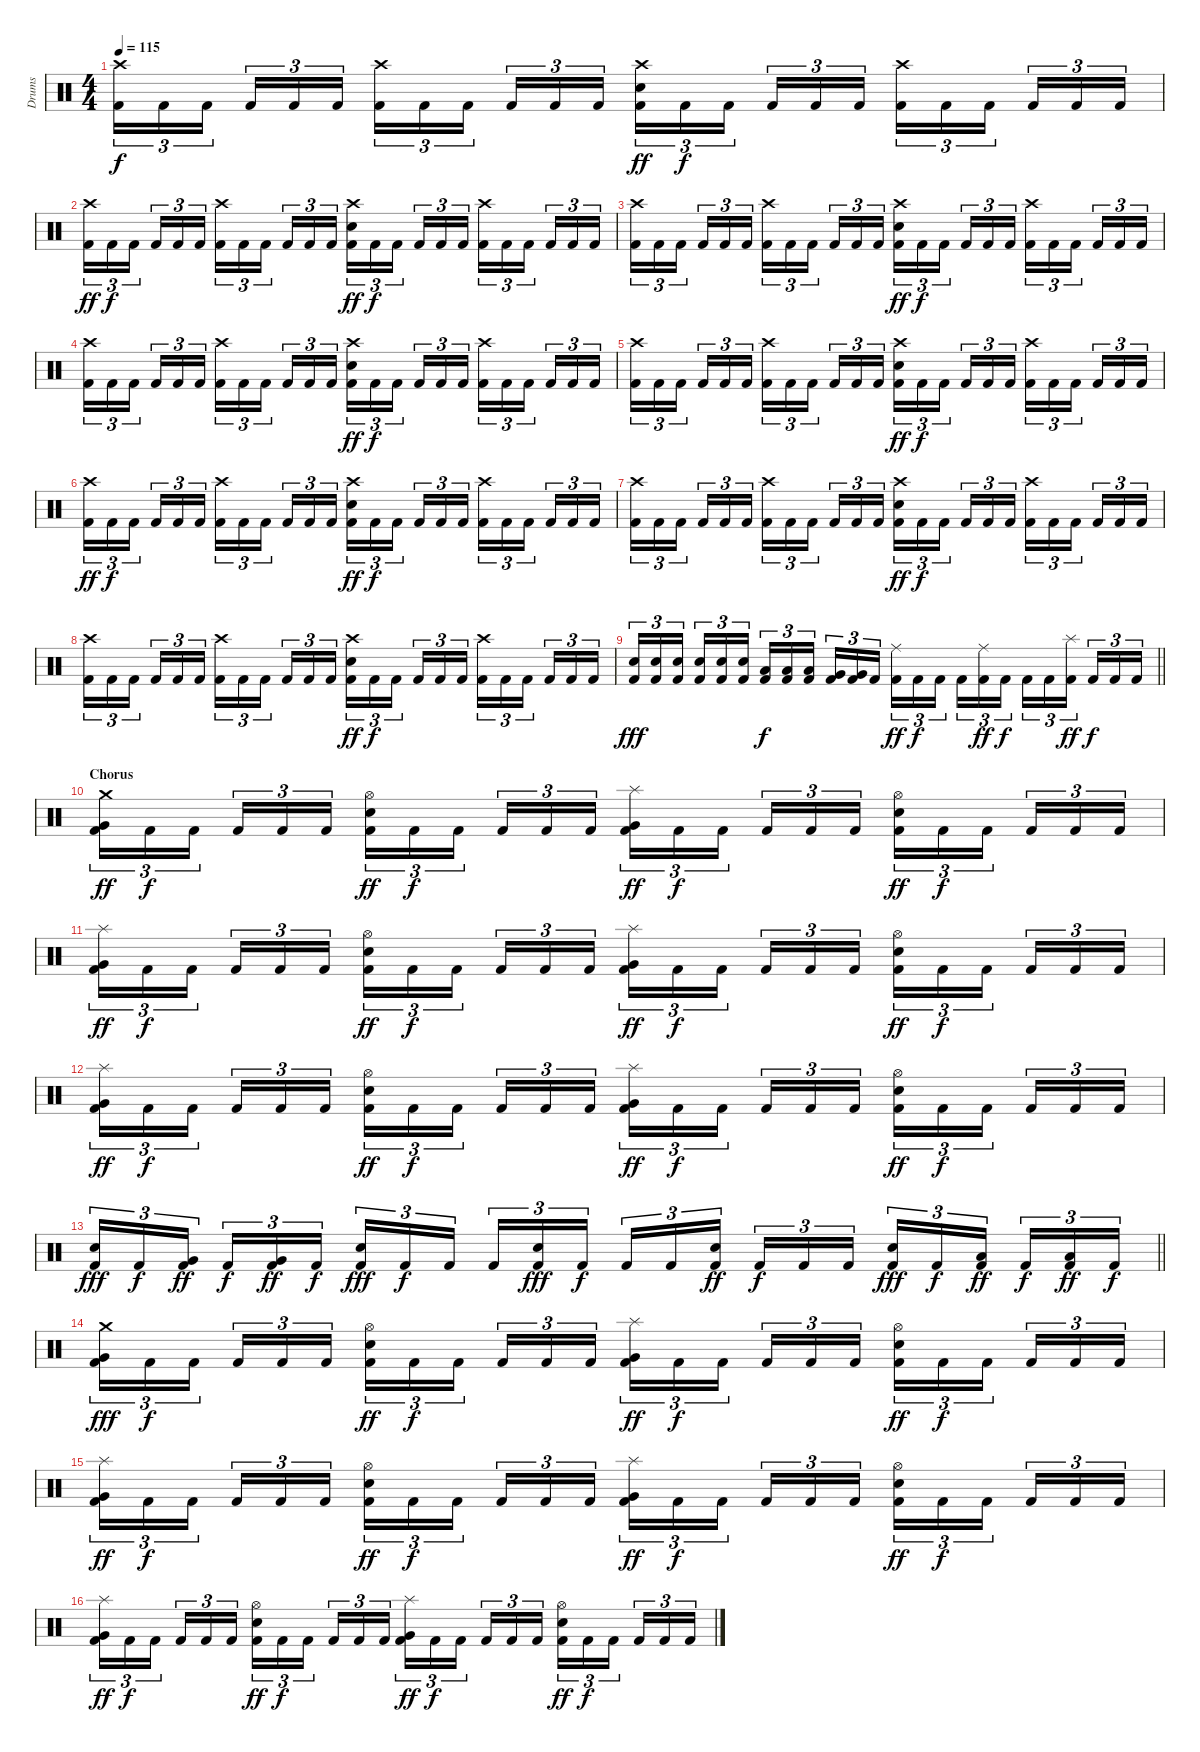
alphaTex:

\track ("Drums" "Drums") {instrument percussion}
\staff {score}
\articulation defaults
\ts (4 4)
\tempo 115
\clef neutral
\ks c
("Crash high (hit)" "Kick (hit) 2").16{tu (3 2) dy f} "Kick (hit) 2".16{tu (3 2)} "Kick (hit) 2".16{tu (3 2) beam splitsecondary} "Kick (hit) 2".16{tu (3 2)} "Kick (hit) 2".16{tu (3 2)} "Kick (hit) 2".16{tu (3 2)} ("Crash high (hit)" "Kick (hit) 2").16{tu (3 2)} "Kick (hit) 2".16{tu (3 2)} "Kick (hit) 2".16{tu (3 2) beam splitsecondary} "Kick (hit) 2".16{tu (3 2)} "Kick (hit) 2".16{tu (3 2)} "Kick (hit) 2".16{tu (3 2)} ("Crash high (hit)" "Snare (hit) 2" "Kick (hit) 2").16{tu (3 2) dy ff} "Kick (hit) 2".16{tu (3 2) dy f} "Kick (hit) 2".16{tu (3 2) beam splitsecondary} "Kick (hit) 2".16{tu (3 2)} "Kick (hit) 2".16{tu (3 2)} "Kick (hit) 2".16{tu (3 2)} ("Crash high (hit)" "Kick (hit) 2").16{tu (3 2)} "Kick (hit) 2".16{tu (3 2)} "Kick (hit) 2".16{tu (3 2) beam splitsecondary} "Kick (hit) 2".16{tu (3 2)} "Kick (hit) 2".16{tu (3 2)} "Kick (hit) 2".16{tu (3 2)} |
("Crash high (hit)" "Kick (hit) 2").16{tu (3 2) dy ff} "Kick (hit) 2".16{tu (3 2) dy f} "Kick (hit) 2".16{tu (3 2) beam splitsecondary} "Kick (hit) 2".16{tu (3 2)} "Kick (hit) 2".16{tu (3 2)} "Kick (hit) 2".16{tu (3 2)} ("Crash high (hit)" "Kick (hit) 2").16{tu (3 2)} "Kick (hit) 2".16{tu (3 2)} "Kick (hit) 2".16{tu (3 2) beam splitsecondary} "Kick (hit) 2".16{tu (3 2)} "Kick (hit) 2".16{tu (3 2)} "Kick (hit) 2".16{tu (3 2)} ("Crash high (hit)" "Snare (hit) 2" "Kick (hit) 2").16{tu (3 2) dy ff} "Kick (hit) 2".16{tu (3 2) dy f} "Kick (hit) 2".16{tu (3 2) beam splitsecondary} "Kick (hit) 2".16{tu (3 2)} "Kick (hit) 2".16{tu (3 2)} "Kick (hit) 2".16{tu (3 2)} ("Crash high (hit)" "Kick (hit) 2").16{tu (3 2)} "Kick (hit) 2".16{tu (3 2)} "Kick (hit) 2".16{tu (3 2) beam splitsecondary} "Kick (hit) 2".16{tu (3 2)} "Kick (hit) 2".16{tu (3 2)} "Kick (hit) 2".16{tu (3 2)} |
("Crash high (hit)" "Kick (hit) 2").16{tu (3 2)} "Kick (hit) 2".16{tu (3 2)} "Kick (hit) 2".16{tu (3 2) beam splitsecondary} "Kick (hit) 2".16{tu (3 2)} "Kick (hit) 2".16{tu (3 2)} "Kick (hit) 2".16{tu (3 2)} ("Crash high (hit)" "Kick (hit) 2").16{tu (3 2)} "Kick (hit) 2".16{tu (3 2)} "Kick (hit) 2".16{tu (3 2) beam splitsecondary} "Kick (hit) 2".16{tu (3 2)} "Kick (hit) 2".16{tu (3 2)} "Kick (hit) 2".16{tu (3 2)} ("Crash high (hit)" "Snare (hit) 2" "Kick (hit) 2").16{tu (3 2) dy ff} "Kick (hit) 2".16{tu (3 2) dy f} "Kick (hit) 2".16{tu (3 2) beam splitsecondary} "Kick (hit) 2".16{tu (3 2)} "Kick (hit) 2".16{tu (3 2)} "Kick (hit) 2".16{tu (3 2)} ("Crash high (hit)" "Kick (hit) 2").16{tu (3 2)} "Kick (hit) 2".16{tu (3 2)} "Kick (hit) 2".16{tu (3 2) beam splitsecondary} "Kick (hit) 2".16{tu (3 2)} "Kick (hit) 2".16{tu (3 2)} "Kick (hit) 2".16{tu (3 2)} |
("Crash high (hit)" "Kick (hit) 2").16{tu (3 2)} "Kick (hit) 2".16{tu (3 2)} "Kick (hit) 2".16{tu (3 2) beam splitsecondary} "Kick (hit) 2".16{tu (3 2)} "Kick (hit) 2".16{tu (3 2)} "Kick (hit) 2".16{tu (3 2)} ("Crash high (hit)" "Kick (hit) 2").16{tu (3 2)} "Kick (hit) 2".16{tu (3 2)} "Kick (hit) 2".16{tu (3 2) beam splitsecondary} "Kick (hit) 2".16{tu (3 2)} "Kick (hit) 2".16{tu (3 2)} "Kick (hit) 2".16{tu (3 2)} ("Crash high (hit)" "Snare (hit) 2" "Kick (hit) 2").16{tu (3 2) dy ff} "Kick (hit) 2".16{tu (3 2) dy f} "Kick (hit) 2".16{tu (3 2) beam splitsecondary} "Kick (hit) 2".16{tu (3 2)} "Kick (hit) 2".16{tu (3 2)} "Kick (hit) 2".16{tu (3 2)} ("Crash high (hit)" "Kick (hit) 2").16{tu (3 2)} "Kick (hit) 2".16{tu (3 2)} "Kick (hit) 2".16{tu (3 2) beam splitsecondary} "Kick (hit) 2".16{tu (3 2)} "Kick (hit) 2".16{tu (3 2)} "Kick (hit) 2".16{tu (3 2)} |
("Crash high (hit)" "Kick (hit) 2").16{tu (3 2)} "Kick (hit) 2".16{tu (3 2)} "Kick (hit) 2".16{tu (3 2) beam splitsecondary} "Kick (hit) 2".16{tu (3 2)} "Kick (hit) 2".16{tu (3 2)} "Kick (hit) 2".16{tu (3 2)} ("Crash high (hit)" "Kick (hit) 2").16{tu (3 2)} "Kick (hit) 2".16{tu (3 2)} "Kick (hit) 2".16{tu (3 2) beam splitsecondary} "Kick (hit) 2".16{tu (3 2)} "Kick (hit) 2".16{tu (3 2)} "Kick (hit) 2".16{tu (3 2)} ("Crash high (hit)" "Snare (hit) 2" "Kick (hit) 2").16{tu (3 2) dy ff} "Kick (hit) 2".16{tu (3 2) dy f} "Kick (hit) 2".16{tu (3 2) beam splitsecondary} "Kick (hit) 2".16{tu (3 2)} "Kick (hit) 2".16{tu (3 2)} "Kick (hit) 2".16{tu (3 2)} ("Crash high (hit)" "Kick (hit) 2").16{tu (3 2)} "Kick (hit) 2".16{tu (3 2)} "Kick (hit) 2".16{tu (3 2) beam splitsecondary} "Kick (hit) 2".16{tu (3 2)} "Kick (hit) 2".16{tu (3 2)} "Kick (hit) 2".16{tu (3 2)} |
("Crash high (hit)" "Kick (hit) 2").16{tu (3 2) dy ff} "Kick (hit) 2".16{tu (3 2) dy f} "Kick (hit) 2".16{tu (3 2) beam splitsecondary} "Kick (hit) 2".16{tu (3 2)} "Kick (hit) 2".16{tu (3 2)} "Kick (hit) 2".16{tu (3 2)} ("Crash high (hit)" "Kick (hit) 2").16{tu (3 2)} "Kick (hit) 2".16{tu (3 2)} "Kick (hit) 2".16{tu (3 2) beam splitsecondary} "Kick (hit) 2".16{tu (3 2)} "Kick (hit) 2".16{tu (3 2)} "Kick (hit) 2".16{tu (3 2)} ("Crash high (hit)" "Snare (hit) 2" "Kick (hit) 2").16{tu (3 2) dy ff} "Kick (hit) 2".16{tu (3 2) dy f} "Kick (hit) 2".16{tu (3 2) beam splitsecondary} "Kick (hit) 2".16{tu (3 2)} "Kick (hit) 2".16{tu (3 2)} "Kick (hit) 2".16{tu (3 2)} ("Crash high (hit)" "Kick (hit) 2").16{tu (3 2)} "Kick (hit) 2".16{tu (3 2)} "Kick (hit) 2".16{tu (3 2) beam splitsecondary} "Kick (hit) 2".16{tu (3 2)} "Kick (hit) 2".16{tu (3 2)} "Kick (hit) 2".16{tu (3 2)} |
("Crash high (hit)" "Kick (hit) 2").16{tu (3 2)} "Kick (hit) 2".16{tu (3 2)} "Kick (hit) 2".16{tu (3 2) beam splitsecondary} "Kick (hit) 2".16{tu (3 2)} "Kick (hit) 2".16{tu (3 2)} "Kick (hit) 2".16{tu (3 2)} ("Crash high (hit)" "Kick (hit) 2").16{tu (3 2)} "Kick (hit) 2".16{tu (3 2)} "Kick (hit) 2".16{tu (3 2) beam splitsecondary} "Kick (hit) 2".16{tu (3 2)} "Kick (hit) 2".16{tu (3 2)} "Kick (hit) 2".16{tu (3 2)} ("Crash high (hit)" "Snare (hit) 2" "Kick (hit) 2").16{tu (3 2) dy ff} "Kick (hit) 2".16{tu (3 2) dy f} "Kick (hit) 2".16{tu (3 2) beam splitsecondary} "Kick (hit) 2".16{tu (3 2)} "Kick (hit) 2".16{tu (3 2)} "Kick (hit) 2".16{tu (3 2)} ("Crash high (hit)" "Kick (hit) 2").16{tu (3 2)} "Kick (hit) 2".16{tu (3 2)} "Kick (hit) 2".16{tu (3 2) beam splitsecondary} "Kick (hit) 2".16{tu (3 2)} "Kick (hit) 2".16{tu (3 2)} "Kick (hit) 2".16{tu (3 2)} |
("Crash high (hit)" "Kick (hit) 2").16{tu (3 2)} "Kick (hit) 2".16{tu (3 2)} "Kick (hit) 2".16{tu (3 2) beam splitsecondary} "Kick (hit) 2".16{tu (3 2)} "Kick (hit) 2".16{tu (3 2)} "Kick (hit) 2".16{tu (3 2)} ("Crash high (hit)" "Kick (hit) 2").16{tu (3 2)} "Kick (hit) 2".16{tu (3 2)} "Kick (hit) 2".16{tu (3 2) beam splitsecondary} "Kick (hit) 2".16{tu (3 2)} "Kick (hit) 2".16{tu (3 2)} "Kick (hit) 2".16{tu (3 2)} ("Crash high (hit)" "Snare (hit) 2" "Kick (hit) 2").16{tu (3 2) dy ff} "Kick (hit) 2".16{tu (3 2) dy f} "Kick (hit) 2".16{tu (3 2) beam splitsecondary} "Kick (hit) 2".16{tu (3 2)} "Kick (hit) 2".16{tu (3 2)} "Kick (hit) 2".16{tu (3 2)} ("Crash high (hit)" "Kick (hit) 2").16{tu (3 2)} "Kick (hit) 2".16{tu (3 2)} "Kick (hit) 2".16{tu (3 2) beam splitsecondary} "Kick (hit) 2".16{tu (3 2)} "Kick (hit) 2".16{tu (3 2)} "Kick (hit) 2".16{tu (3 2)} |
\barLineRight lightlight
("Snare (hit) 2" "Kick (hit) 2").16{tu (3 2) dy fff} ("Snare (hit) 2" "Kick (hit) 2").16{tu (3 2)} ("Snare (hit) 2" "Kick (hit) 2").16{tu (3 2) beam splitsecondary} ("Snare (hit) 2" "Kick (hit) 2").16{tu (3 2)} ("Snare (hit) 2" "Kick (hit) 2").16{tu (3 2)} ("Snare (hit) 2" "Kick (hit) 2").16{tu (3 2)} ("Low Tom (hit)" "Kick (hit) 2").16{tu (3 2) dy f} ("Low Tom (hit)" "Kick (hit) 2").16{tu (3 2)} ("Low Tom (hit)" "Kick (hit) 2").16{tu (3 2) beam splitsecondary} ("Very Low Tom (hit)" "Kick (hit) 2").16{tu (3 2)} ("Very Low Tom (hit)" "Kick (hit) 2").16{tu (3 2)} "Kick (hit) 2".16{tu (3 2)} ("Ride (middle)" "Kick (hit) 2").16{tu (3 2) dy ff} "Kick (hit) 2".16{tu (3 2) dy f} "Kick (hit) 2".16{tu (3 2) beam splitsecondary} "Kick (hit) 2".16{tu (3 2)} ("Ride (middle)" "Kick (hit) 2").16{tu (3 2) dy ff} "Kick (hit) 2".16{tu (3 2) dy f} "Kick (hit) 2".16{tu (3 2)} "Kick (hit) 2".16{tu (3 2)} ("Splash (hit)" "Kick (hit) 2").16{tu (3 2) dy ff beam splitsecondary} "Kick (hit) 2".16{tu (3 2) dy f} "Kick (hit) 2".16{tu (3 2)} "Kick (hit) 2".16{tu (3 2)} |
\section ("" "Chorus")
("Crash medium (hit)" "Very Low Tom (hit)" "Kick (hit) 2").16{tu (3 2) dy ff} "Kick (hit) 2".16{tu (3 2) dy f} "Kick (hit) 2".16{tu (3 2) beam splitsecondary} "Kick (hit) 2".16{tu (3 2)} "Kick (hit) 2".16{tu (3 2)} "Kick (hit) 2".16{tu (3 2)} ("Hi-Hat (open)" "Snare (hit) 2" "Kick (hit) 2").16{tu (3 2) dy ff} "Kick (hit) 2".16{tu (3 2) dy f} "Kick (hit) 2".16{tu (3 2) beam splitsecondary} "Kick (hit) 2".16{tu (3 2)} "Kick (hit) 2".16{tu (3 2)} "Kick (hit) 2".16{tu (3 2)} ("Splash (hit)" "Very Low Tom (hit)" "Kick (hit) 2").16{tu (3 2) dy ff} "Kick (hit) 2".16{tu (3 2) dy f} "Kick (hit) 2".16{tu (3 2) beam splitsecondary} "Kick (hit) 2".16{tu (3 2)} "Kick (hit) 2".16{tu (3 2)} "Kick (hit) 2".16{tu (3 2)} ("Hi-Hat (open)" "Snare (hit) 2" "Kick (hit) 2").16{tu (3 2) dy ff} "Kick (hit) 2".16{tu (3 2) dy f} "Kick (hit) 2".16{tu (3 2) beam splitsecondary} "Kick (hit) 2".16{tu (3 2)} "Kick (hit) 2".16{tu (3 2)} "Kick (hit) 2".16{tu (3 2)} |
("Splash (hit)" "Very Low Tom (hit)" "Kick (hit) 2").16{tu (3 2) dy ff} "Kick (hit) 2".16{tu (3 2) dy f} "Kick (hit) 2".16{tu (3 2) beam splitsecondary} "Kick (hit) 2".16{tu (3 2)} "Kick (hit) 2".16{tu (3 2)} "Kick (hit) 2".16{tu (3 2)} ("Hi-Hat (open)" "Snare (hit) 2" "Kick (hit) 2").16{tu (3 2) dy ff} "Kick (hit) 2".16{tu (3 2) dy f} "Kick (hit) 2".16{tu (3 2) beam splitsecondary} "Kick (hit) 2".16{tu (3 2)} "Kick (hit) 2".16{tu (3 2)} "Kick (hit) 2".16{tu (3 2)} ("Splash (hit)" "Very Low Tom (hit)" "Kick (hit) 2").16{tu (3 2) dy ff} "Kick (hit) 2".16{tu (3 2) dy f} "Kick (hit) 2".16{tu (3 2) beam splitsecondary} "Kick (hit) 2".16{tu (3 2)} "Kick (hit) 2".16{tu (3 2)} "Kick (hit) 2".16{tu (3 2)} ("Hi-Hat (open)" "Snare (hit) 2" "Kick (hit) 2").16{tu (3 2) dy ff} "Kick (hit) 2".16{tu (3 2) dy f} "Kick (hit) 2".16{tu (3 2) beam splitsecondary} "Kick (hit) 2".16{tu (3 2)} "Kick (hit) 2".16{tu (3 2)} "Kick (hit) 2".16{tu (3 2)} |
("Splash (hit)" "Very Low Tom (hit)" "Kick (hit) 2").16{tu (3 2) dy ff} "Kick (hit) 2".16{tu (3 2) dy f} "Kick (hit) 2".16{tu (3 2) beam splitsecondary} "Kick (hit) 2".16{tu (3 2)} "Kick (hit) 2".16{tu (3 2)} "Kick (hit) 2".16{tu (3 2)} ("Hi-Hat (open)" "Snare (hit) 2" "Kick (hit) 2").16{tu (3 2) dy ff} "Kick (hit) 2".16{tu (3 2) dy f} "Kick (hit) 2".16{tu (3 2) beam splitsecondary} "Kick (hit) 2".16{tu (3 2)} "Kick (hit) 2".16{tu (3 2)} "Kick (hit) 2".16{tu (3 2)} ("Splash (hit)" "Very Low Tom (hit)" "Kick (hit) 2").16{tu (3 2) dy ff} "Kick (hit) 2".16{tu (3 2) dy f} "Kick (hit) 2".16{tu (3 2) beam splitsecondary} "Kick (hit) 2".16{tu (3 2)} "Kick (hit) 2".16{tu (3 2)} "Kick (hit) 2".16{tu (3 2)} ("Hi-Hat (open)" "Snare (hit) 2" "Kick (hit) 2").16{tu (3 2) dy ff} "Kick (hit) 2".16{tu (3 2) dy f} "Kick (hit) 2".16{tu (3 2) beam splitsecondary} "Kick (hit) 2".16{tu (3 2)} "Kick (hit) 2".16{tu (3 2)} "Kick (hit) 2".16{tu (3 2)} |
\barLineRight lightlight
("Snare (hit) 2" "Kick (hit) 2").16{tu (3 2) dy fff} "Kick (hit) 2".16{tu (3 2) dy f} ("Very Low Tom (hit)" "Kick (hit) 2").16{tu (3 2) dy ff beam splitsecondary} "Kick (hit) 2".16{tu (3 2) dy f} ("Very Low Tom (hit)" "Kick (hit) 2").16{tu (3 2) dy ff} "Kick (hit) 2".16{tu (3 2) dy f} ("Snare (hit) 2" "Kick (hit) 2").16{tu (3 2) dy fff} "Kick (hit) 2".16{tu (3 2) dy f} "Kick (hit) 2".16{tu (3 2) beam splitsecondary} "Kick (hit) 2".16{tu (3 2)} ("Snare (hit) 2" "Kick (hit) 2").16{tu (3 2) dy fff} "Kick (hit) 2".16{tu (3 2) dy f} "Kick (hit) 2".16{tu (3 2)} "Kick (hit) 2".16{tu (3 2)} ("Snare (hit) 2" "Kick (hit) 2").16{tu (3 2) dy ff beam splitsecondary} "Kick (hit) 2".16{tu (3 2) dy f} "Kick (hit) 2".16{tu (3 2)} "Kick (hit) 2".16{tu (3 2)} ("Snare (hit) 2" "Kick (hit) 2").16{tu (3 2) dy fff} "Kick (hit) 2".16{tu (3 2) dy f} ("Low Floor Tom (hit)" "Kick (hit) 2").16{tu (3 2) dy ff beam splitsecondary} "Kick (hit) 2".16{tu (3 2) dy f} ("Low Floor Tom (hit)" "Kick (hit) 2").16{tu (3 2) dy ff} "Kick (hit) 2".16{tu (3 2) dy f} |
("Crash medium (hit)" "Very Low Tom (hit)" "Kick (hit) 2").16{tu (3 2) dy fff} "Kick (hit) 2".16{tu (3 2) dy f} "Kick (hit) 2".16{tu (3 2) beam splitsecondary} "Kick (hit) 2".16{tu (3 2)} "Kick (hit) 2".16{tu (3 2)} "Kick (hit) 2".16{tu (3 2)} ("Hi-Hat (open)" "Snare (hit) 2" "Kick (hit) 2").16{tu (3 2) dy ff} "Kick (hit) 2".16{tu (3 2) dy f} "Kick (hit) 2".16{tu (3 2) beam splitsecondary} "Kick (hit) 2".16{tu (3 2)} "Kick (hit) 2".16{tu (3 2)} "Kick (hit) 2".16{tu (3 2)} ("Splash (hit)" "Very Low Tom (hit)" "Kick (hit) 2").16{tu (3 2) dy ff} "Kick (hit) 2".16{tu (3 2) dy f} "Kick (hit) 2".16{tu (3 2) beam splitsecondary} "Kick (hit) 2".16{tu (3 2)} "Kick (hit) 2".16{tu (3 2)} "Kick (hit) 2".16{tu (3 2)} ("Hi-Hat (open)" "Snare (hit) 2" "Kick (hit) 2").16{tu (3 2) dy ff} "Kick (hit) 2".16{tu (3 2) dy f} "Kick (hit) 2".16{tu (3 2) beam splitsecondary} "Kick (hit) 2".16{tu (3 2)} "Kick (hit) 2".16{tu (3 2)} "Kick (hit) 2".16{tu (3 2)} |
("Splash (hit)" "Very Low Tom (hit)" "Kick (hit) 2").16{tu (3 2) dy ff} "Kick (hit) 2".16{tu (3 2) dy f} "Kick (hit) 2".16{tu (3 2) beam splitsecondary} "Kick (hit) 2".16{tu (3 2)} "Kick (hit) 2".16{tu (3 2)} "Kick (hit) 2".16{tu (3 2)} ("Hi-Hat (open)" "Snare (hit) 2" "Kick (hit) 2").16{tu (3 2) dy ff} "Kick (hit) 2".16{tu (3 2) dy f} "Kick (hit) 2".16{tu (3 2) beam splitsecondary} "Kick (hit) 2".16{tu (3 2)} "Kick (hit) 2".16{tu (3 2)} "Kick (hit) 2".16{tu (3 2)} ("Splash (hit)" "Very Low Tom (hit)" "Kick (hit) 2").16{tu (3 2) dy ff} "Kick (hit) 2".16{tu (3 2) dy f} "Kick (hit) 2".16{tu (3 2) beam splitsecondary} "Kick (hit) 2".16{tu (3 2)} "Kick (hit) 2".16{tu (3 2)} "Kick (hit) 2".16{tu (3 2)} ("Hi-Hat (open)" "Snare (hit) 2" "Kick (hit) 2").16{tu (3 2) dy ff} "Kick (hit) 2".16{tu (3 2) dy f} "Kick (hit) 2".16{tu (3 2) beam splitsecondary} "Kick (hit) 2".16{tu (3 2)} "Kick (hit) 2".16{tu (3 2)} "Kick (hit) 2".16{tu (3 2)} |
("Splash (hit)" "Very Low Tom (hit)" "Kick (hit) 2").16{tu (3 2) dy ff} "Kick (hit) 2".16{tu (3 2) dy f} "Kick (hit) 2".16{tu (3 2) beam splitsecondary} "Kick (hit) 2".16{tu (3 2)} "Kick (hit) 2".16{tu (3 2)} "Kick (hit) 2".16{tu (3 2)} ("Hi-Hat (open)" "Snare (hit) 2" "Kick (hit) 2").16{tu (3 2) dy ff} "Kick (hit) 2".16{tu (3 2) dy f} "Kick (hit) 2".16{tu (3 2) beam splitsecondary} "Kick (hit) 2".16{tu (3 2)} "Kick (hit) 2".16{tu (3 2)} "Kick (hit) 2".16{tu (3 2)} ("Splash (hit)" "Very Low Tom (hit)" "Kick (hit) 2").16{tu (3 2) dy ff} "Kick (hit) 2".16{tu (3 2) dy f} "Kick (hit) 2".16{tu (3 2) beam splitsecondary} "Kick (hit) 2".16{tu (3 2)} "Kick (hit) 2".16{tu (3 2)} "Kick (hit) 2".16{tu (3 2)} ("Hi-Hat (open)" "Snare (hit) 2" "Kick (hit) 2").16{tu (3 2) dy ff} "Kick (hit) 2".16{tu (3 2) dy f} "Kick (hit) 2".16{tu (3 2) beam splitsecondary} "Kick (hit) 2".16{tu (3 2)} "Kick (hit) 2".16{tu (3 2)} "Kick (hit) 2".16{tu (3 2)}
